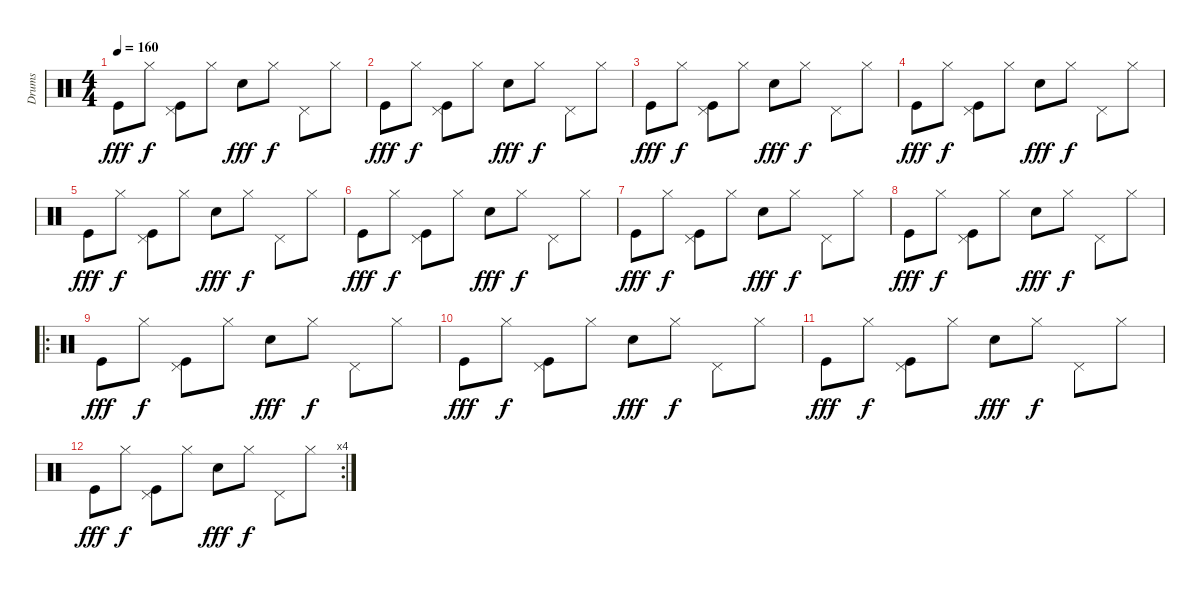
\track ("Drums" "Drums") {instrument percussion}
\staff {score}
\articulation defaults
\ts (4 4)
\tempo 160
\clef neutral
\ks c "Kick (hit)".8{dy fff} "Hi-Hat (closed)".8{dy f}
("Kick (hit)" "Pedal Hi-Hat (hit)").8 "Hi-Hat (closed)".8 "Snare (hit) 2".8{dy fff} "Hi-Hat (closed)".8{dy f} "Pedal Hi-Hat (hit)".8 "Hi-Hat (closed)".8 |
"Kick (hit)".8{dy fff} "Hi-Hat (closed)".8{dy f} ("Kick (hit)" "Pedal Hi-Hat (hit)").8 "Hi-Hat (closed)".8 "Snare (hit) 2".8{dy fff} "Hi-Hat (closed)".8{dy f} "Pedal Hi-Hat (hit)".8 "Hi-Hat (closed)".8 |
"Kick (hit)".8{dy fff} "Hi-Hat (closed)".8{dy f} ("Kick (hit)" "Pedal Hi-Hat (hit)").8 "Hi-Hat (closed)".8 "Snare (hit) 2".8{dy fff} "Hi-Hat (closed)".8{dy f} "Pedal Hi-Hat (hit)".8 "Hi-Hat (closed)".8 |
"Kick (hit)".8{dy fff} "Hi-Hat (closed)".8{dy f} ("Kick (hit)" "Pedal Hi-Hat (hit)").8 "Hi-Hat (closed)".8 "Snare (hit) 2".8{dy fff} "Hi-Hat (closed)".8{dy f} "Pedal Hi-Hat (hit)".8 "Hi-Hat (closed)".8 |
"Kick (hit)".8{dy fff} "Hi-Hat (closed)".8{dy f} ("Kick (hit)" "Pedal Hi-Hat (hit)").8 "Hi-Hat (closed)".8 "Snare (hit) 2".8{dy fff} "Hi-Hat (closed)".8{dy f} "Pedal Hi-Hat (hit)".8 "Hi-Hat (closed)".8 |
"Kick (hit)".8{dy fff} "Hi-Hat (closed)".8{dy f} ("Kick (hit)" "Pedal Hi-Hat (hit)").8 "Hi-Hat (closed)".8 "Snare (hit) 2".8{dy fff} "Hi-Hat (closed)".8{dy f} "Pedal Hi-Hat (hit)".8 "Hi-Hat (closed)".8 |
"Kick (hit)".8{dy fff} "Hi-Hat (closed)".8{dy f} ("Kick (hit)" "Pedal Hi-Hat (hit)").8 "Hi-Hat (closed)".8 "Snare (hit) 2".8{dy fff} "Hi-Hat (closed)".8{dy f} "Pedal Hi-Hat (hit)".8 "Hi-Hat (closed)".8 |
"Kick (hit)".8{dy fff} "Hi-Hat (closed)".8{dy f} ("Kick (hit)" "Pedal Hi-Hat (hit)").8 "Hi-Hat (closed)".8 "Snare (hit) 2".8{dy fff} "Hi-Hat (closed)".8{dy f} "Pedal Hi-Hat (hit)".8 "Hi-Hat (closed)".8 |
\ro "Kick (hit)".8{dy fff} "Hi-Hat (closed)".8{dy f}
("Kick (hit)" "Pedal Hi-Hat (hit)").8 "Hi-Hat (closed)".8 "Snare (hit) 2".8{dy fff} "Hi-Hat (closed)".8{dy f} "Pedal Hi-Hat (hit)".8 "Hi-Hat (closed)".8 |
"Kick (hit)".8{dy fff} "Hi-Hat (closed)".8{dy f} ("Kick (hit)" "Pedal Hi-Hat (hit)").8 "Hi-Hat (closed)".8 "Snare (hit) 2".8{dy fff} "Hi-Hat (closed)".8{dy f} "Pedal Hi-Hat (hit)".8 "Hi-Hat (closed)".8 |
"Kick (hit)".8{dy fff} "Hi-Hat (closed)".8{dy f} ("Kick (hit)" "Pedal Hi-Hat (hit)").8 "Hi-Hat (closed)".8 "Snare (hit) 2".8{dy fff} "Hi-Hat (closed)".8{dy f} "Pedal Hi-Hat (hit)".8 "Hi-Hat (closed)".8 |
\rc 4 "Kick (hit)".8{dy fff} "Hi-Hat (closed)".8{dy f}
("Kick (hit)" "Pedal Hi-Hat (hit)").8 "Hi-Hat (closed)".8 "Snare (hit) 2".8{dy fff} "Hi-Hat (closed)".8{dy f} "Pedal Hi-Hat (hit)".8 "Hi-Hat (closed)".8
